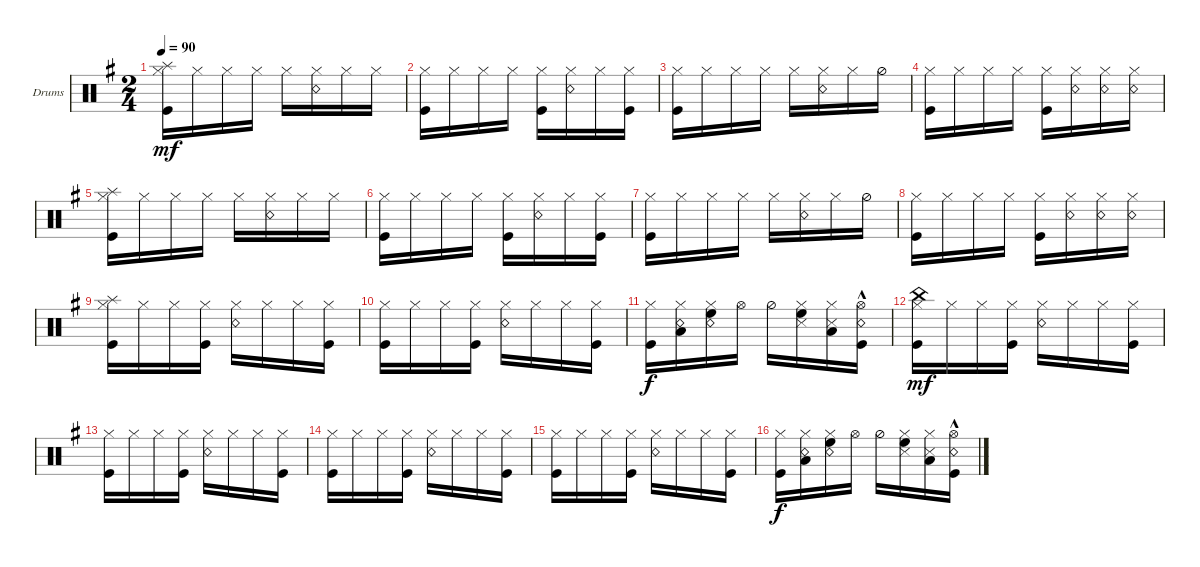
\defaultSystemsLayout 4
\bracketExtendMode groupsimilarinstruments
\firstSystemTrackNameOrientation horizontal
\otherSystemsTrackNameOrientation horizontal
\track ("Drumkit" "Drums") {instrument percussion}
\staff {score}
\articulation defaults
\ts (2 4)
\tempo 90
\clef neutral
\ks eminor
("Hi-Hat (closed)" "Kick (hit)" "Splash (hit)").16{dy mf} "Hi-Hat (closed)".16 "Hi-Hat (closed)".16 "Hi-Hat (closed)".16 "Hi-Hat (closed)".16 ("Hi-Hat (closed)" "Snare (rim shot)").16 "Hi-Hat (closed)".16 "Hi-Hat (closed)".16 |
("Hi-Hat (closed)" "Kick (hit)").16 "Hi-Hat (closed)".16 "Hi-Hat (closed)".16 "Hi-Hat (closed)".16 ("Hi-Hat (closed)" "Kick (hit)").16 ("Hi-Hat (closed)" "Snare (rim shot)").16 "Hi-Hat (closed)".16 ("Hi-Hat (closed)" "Kick (hit)").16 |
("Kick (hit)" "Hi-Hat (closed)").16 "Hi-Hat (closed)".16 "Hi-Hat (closed)".16 "Hi-Hat (closed)".16 "Hi-Hat (closed)".16 ("Hi-Hat (closed)" "Snare (rim shot)").16 "Hi-Hat (closed)".16 "Hi-Hat (half)".16 |
("Kick (hit)" "Hi-Hat (closed)").16 "Hi-Hat (closed)".16 "Hi-Hat (closed)".16 "Hi-Hat (closed)".16 ("Hi-Hat (closed)" "Kick (hit)").16 ("Hi-Hat (closed)" "Snare (rim shot)").16 ("Hi-Hat (closed)" "Snare (rim shot)").16 ("Hi-Hat (closed)" "Snare (rim shot)").16 |
("Hi-Hat (closed)" "Kick (hit)" "Splash (hit)").16 "Hi-Hat (closed)".16 "Hi-Hat (closed)".16 "Hi-Hat (closed)".16 "Hi-Hat (closed)".16 ("Hi-Hat (closed)" "Snare (rim shot)").16 "Hi-Hat (closed)".16 "Hi-Hat (closed)".16 |
("Hi-Hat (closed)" "Kick (hit)").16 "Hi-Hat (closed)".16 "Hi-Hat (closed)".16 "Hi-Hat (closed)".16 ("Hi-Hat (closed)" "Kick (hit)").16 ("Hi-Hat (closed)" "Snare (rim shot)").16 "Hi-Hat (closed)".16 ("Hi-Hat (closed)" "Kick (hit)").16 |
("Kick (hit)" "Hi-Hat (closed)").16 "Hi-Hat (closed)".16 "Hi-Hat (closed)".16 "Hi-Hat (closed)".16 "Hi-Hat (closed)".16 ("Hi-Hat (closed)" "Snare (rim shot)").16 "Hi-Hat (closed)".16 "Hi-Hat (half)".16 |
("Kick (hit)" "Hi-Hat (closed)").16 "Hi-Hat (closed)".16 "Hi-Hat (closed)".16 "Hi-Hat (closed)".16 ("Hi-Hat (closed)" "Kick (hit)").16 ("Hi-Hat (closed)" "Snare (rim shot)").16 ("Hi-Hat (closed)" "Snare (rim shot)").16 ("Hi-Hat (closed)" "Snare (rim shot)").16 |
("Hi-Hat (closed)" "Kick (hit)" "Splash (hit)").16 "Hi-Hat (closed)".16 "Hi-Hat (closed)".16 ("Hi-Hat (closed)" "Kick (hit)").16 ("Hi-Hat (closed)" "Snare (rim shot)").16 "Hi-Hat (closed)".16 "Hi-Hat (closed)".16 ("Hi-Hat (closed)" "Kick (hit)").16 |
("Hi-Hat (closed)" "Kick (hit)").16 "Hi-Hat (closed)".16 "Hi-Hat (closed)".16 ("Hi-Hat (closed)" "Kick (hit)").16 ("Hi-Hat (closed)" "Snare (rim shot)").16 "Hi-Hat (closed)".16 "Hi-Hat (closed)".16 ("Hi-Hat (closed)" "Kick (hit)").16 |
("Hi-Hat (closed)" "Kick (hit)").16{dy f} ("Hi-Hat (closed)" "Snare (rim shot)" "Low Tom (hit)").16 ("Hi-Hat (closed)" "Snare (rim shot)" "High Floor Tom (hit)").16 "Hi-Hat (open)".16 "Hi-Hat (half)".16 ("Hi-Hat (closed)" "Snare (side stick) 3" "High Floor Tom (hit)").16 ("Hi-Hat (closed)" "Snare (side stick) 3" "Low Tom (hit)").16 ("Hi-Hat (open)" "Kick (hit)" "Snare (rim shot)"{hac}).16 |
("Hi-Hat (closed)" "Kick (hit)" "China (hit)").16{dy mf} "Hi-Hat (closed)".16 "Hi-Hat (closed)".16 ("Hi-Hat (closed)" "Kick (hit)").16 ("Hi-Hat (closed)" "Snare (rim shot)").16 "Hi-Hat (closed)".16 "Hi-Hat (closed)".16 ("Hi-Hat (closed)" "Kick (hit)").16 |
("Hi-Hat (closed)" "Kick (hit)").16 "Hi-Hat (closed)".16 "Hi-Hat (closed)".16 ("Hi-Hat (closed)" "Kick (hit)").16 ("Hi-Hat (closed)" "Snare (rim shot)").16 "Hi-Hat (closed)".16 "Hi-Hat (closed)".16 ("Hi-Hat (closed)" "Kick (hit)").16 |
("Hi-Hat (closed)" "Kick (hit)").16 "Hi-Hat (closed)".16 "Hi-Hat (closed)".16 ("Hi-Hat (closed)" "Kick (hit)").16 ("Hi-Hat (closed)" "Snare (rim shot)").16 "Hi-Hat (closed)".16 "Hi-Hat (closed)".16 ("Hi-Hat (closed)" "Kick (hit)").16 |
("Hi-Hat (closed)" "Kick (hit)").16 "Hi-Hat (closed)".16 "Hi-Hat (closed)".16 ("Hi-Hat (closed)" "Kick (hit)").16 ("Hi-Hat (closed)" "Snare (rim shot)").16 "Hi-Hat (closed)".16 "Hi-Hat (closed)".16 ("Hi-Hat (closed)" "Kick (hit)").16 |
("Hi-Hat (closed)" "Kick (hit)").16{dy f} ("Hi-Hat (closed)" "Snare (rim shot)" "Low Tom (hit)").16 ("Hi-Hat (closed)" "Snare (rim shot)" "High Floor Tom (hit)").16 "Hi-Hat (open)".16 "Hi-Hat (half)".16 ("Hi-Hat (closed)" "Snare (side stick) 3" "High Floor Tom (hit)").16 ("Hi-Hat (closed)" "Snare (side stick) 3" "Low Tom (hit)").16 ("Hi-Hat (open)" "Kick (hit)" "Snare (rim shot)"{hac}).16
